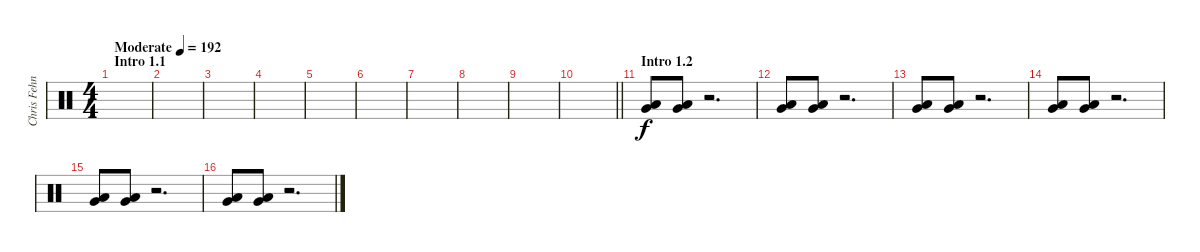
\track ("Chris Fehn" "Chris Fehn") {instrument percussion}
\staff {score}
\articulation defaults
\ts (4 4)
\section ("" "Intro 1.1")
\tempo (192 "Moderate")
\clef neutral
\ks c
|
|
|
|
|
|
|
|
|
\barLineRight lightlight
|
\section ("" "Intro 1.2")
("Very Low Tom (hit)" "Low Floor Tom (hit)").8 ("Very Low Tom (hit)" "Low Floor Tom (hit)").8 r.2{d} |
("Very Low Tom (hit)" "Low Floor Tom (hit)").8 ("Very Low Tom (hit)" "Low Floor Tom (hit)").8 r.2{d} |
("Very Low Tom (hit)" "Low Floor Tom (hit)").8 ("Very Low Tom (hit)" "Low Floor Tom (hit)").8 r.2{d} |
("Very Low Tom (hit)" "Low Floor Tom (hit)").8 ("Very Low Tom (hit)" "Low Floor Tom (hit)").8 r.2{d} |
("Very Low Tom (hit)" "Low Floor Tom (hit)").8 ("Very Low Tom (hit)" "Low Floor Tom (hit)").8 r.2{d} |
("Very Low Tom (hit)" "Low Floor Tom (hit)").8 ("Very Low Tom (hit)" "Low Floor Tom (hit)").8 r.2{d}
